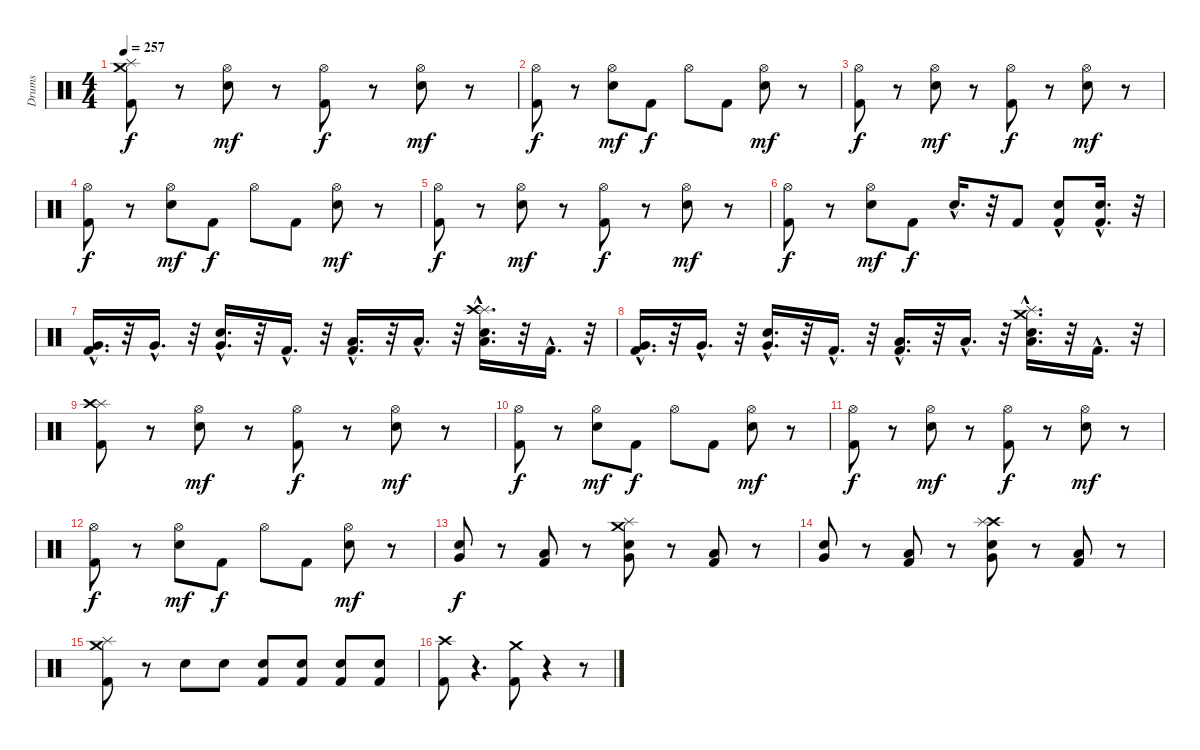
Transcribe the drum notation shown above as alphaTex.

\track ("Drums" "Drums") {instrument percussion}
\staff {score}
\articulation defaults
\ts (4 4)
\tempo 257
\clef neutral
\ks c
("Splash (hit)" "Crash medium (hit)" "Kick (hit) 2").8{dy f} r.8 ("Snare (hit) 2" "Hi-Hat (open)").8{dy mf} r.8 ("Kick (hit) 2" "Hi-Hat (open)").8{dy f} r.8 ("Snare (hit) 2" "Hi-Hat (open)").8{dy mf} r.8 |
("Kick (hit) 2" "Hi-Hat (open)").8{dy f} r.8 ("Snare (hit) 2" "Hi-Hat (open)").8{dy mf} "Kick (hit) 2".8{dy f} "Hi-Hat (open)".8 "Kick (hit) 2".8 ("Snare (hit) 2" "Hi-Hat (open)").8{dy mf} r.8 |
("Hi-Hat (open)" "Kick (hit) 2").8{dy f} r.8 ("Snare (hit) 2" "Hi-Hat (open)").8{dy mf} r.8 ("Kick (hit) 2" "Hi-Hat (open)").8{dy f} r.8 ("Snare (hit) 2" "Hi-Hat (open)").8{dy mf} r.8 |
("Kick (hit) 2" "Hi-Hat (open)").8{dy f} r.8 ("Snare (hit) 2" "Hi-Hat (open)").8{dy mf} "Kick (hit) 2".8{dy f} "Hi-Hat (open)".8 "Kick (hit) 2".8 ("Snare (hit) 2" "Hi-Hat (open)").8{dy mf} r.8 |
("Hi-Hat (open)" "Kick (hit) 2").8{dy f} r.8 ("Snare (hit) 2" "Hi-Hat (open)").8{dy mf} r.8 ("Kick (hit) 2" "Hi-Hat (open)").8{dy f} r.8 ("Snare (hit) 2" "Hi-Hat (open)").8{dy mf} r.8 |
("Kick (hit) 2" "Hi-Hat (open)").8{dy f} r.8 ("Snare (hit) 2" "Hi-Hat (open)").8{dy mf} "Kick (hit) 2".8{dy f} "Snare (hit) 2"{hac}.16{d} r.32 "Kick (hit) 2".8 ("Snare (hit) 2" "Kick (hit) 2"{hac}).8 ("Snare (hit) 2"{hac} "Kick (hit) 2"{hac}).16{d} r.32 |
("Kick (hit) 2"{hac} "Very Low Tom (hit)"{hac}).16{d} r.32 "Very Low Tom (hit)"{hac}.16{d} r.32 ("Snare (hit) 2"{hac} "Very Low Tom (hit)"{hac}).16{d} r.32 "Kick (hit) 2"{hac}.16{d} r.32 ("Kick (hit) 2"{hac} "Low Floor Tom (hit)"{hac}).16{d} r.32 "Low Floor Tom (hit)"{hac}.16{d} r.32 ("Snare (hit) 2"{hac} "Low Floor Tom (hit)"{hac} "Splash (hit)"{hac} "Crash high (hit)"{hac}).16{d} r.32 "Kick (hit) 2"{hac}.16{d} r.32 |
("Kick (hit) 2"{hac} "Very Low Tom (hit)"{hac}).16{d} r.32 "Very Low Tom (hit)"{hac}.16{d} r.32 ("Snare (hit) 2"{hac} "Very Low Tom (hit)"{hac}).16{d} r.32 "Kick (hit) 2"{hac}.16{d} r.32 ("Low Floor Tom (hit)"{hac} "Kick (hit) 2"{hac}).16{d} r.32 "Low Floor Tom (hit)"{hac}.16{d} r.32 ("Snare (hit) 2"{hac} "Low Floor Tom (hit)"{hac} "Splash (hit)"{hac} "Crash medium (hit)"{hac}).16{d} r.32 "Kick (hit) 2"{hac}.16{d} r.32 |
("Splash (hit)" "Crash high (hit)" "Kick (hit) 2").8 r.8 ("Snare (hit) 2" "Hi-Hat (open)").8{dy mf} r.8 ("Kick (hit) 2" "Hi-Hat (open)").8{dy f} r.8 ("Snare (hit) 2" "Hi-Hat (open)").8{dy mf} r.8 |
("Kick (hit) 2" "Hi-Hat (open)").8{dy f} r.8 ("Snare (hit) 2" "Hi-Hat (open)").8{dy mf} "Kick (hit) 2".8{dy f} "Hi-Hat (open)".8 "Kick (hit) 2".8 ("Snare (hit) 2" "Hi-Hat (open)").8{dy mf} r.8 |
("Hi-Hat (open)" "Kick (hit) 2").8{dy f} r.8 ("Snare (hit) 2" "Hi-Hat (open)").8{dy mf} r.8 ("Kick (hit) 2" "Hi-Hat (open)").8{dy f} r.8 ("Snare (hit) 2" "Hi-Hat (open)").8{dy mf} r.8 |
("Kick (hit) 2" "Hi-Hat (open)").8{dy f} r.8 ("Snare (hit) 2" "Hi-Hat (open)").8{dy mf} "Kick (hit) 2".8{dy f} "Hi-Hat (open)".8 "Kick (hit) 2".8 ("Snare (hit) 2" "Hi-Hat (open)").8{dy mf} r.8 |
("Snare (hit) 2" "Very Low Tom (hit)").8{dy f} r.8 ("Kick (hit) 2" "Low Floor Tom (hit)").8 r.8 ("Very Low Tom (hit)" "Snare (hit) 2" "Crash medium (hit)" "Splash (hit)").8 r.8 ("Low Floor Tom (hit)" "Kick (hit) 2").8 r.8 |
("Snare (hit) 2" "Very Low Tom (hit)").8 r.8 ("Kick (hit) 2" "Low Floor Tom (hit)").8 r.8 ("Very Low Tom (hit)" "Snare (hit) 2" "Crash high (hit)" "Splash (hit)").8 r.8 ("Low Floor Tom (hit)" "Kick (hit) 2").8 r.8 |
("Kick (hit) 2" "Splash (hit)" "Crash medium (hit)").8 r.8 "Snare (hit) 2".8 "Snare (hit) 2".8 ("Snare (hit) 2" "Kick (hit) 2").8 ("Snare (hit) 2" "Kick (hit) 2").8 ("Snare (hit) 2" "Kick (hit) 2").8 ("Snare (hit) 2" "Kick (hit) 2").8 |
("Crash high (hit)" "Kick (hit) 2").8 r.4{d} ("Crash medium (hit)" "Kick (hit) 2").8 r.4 r.8
